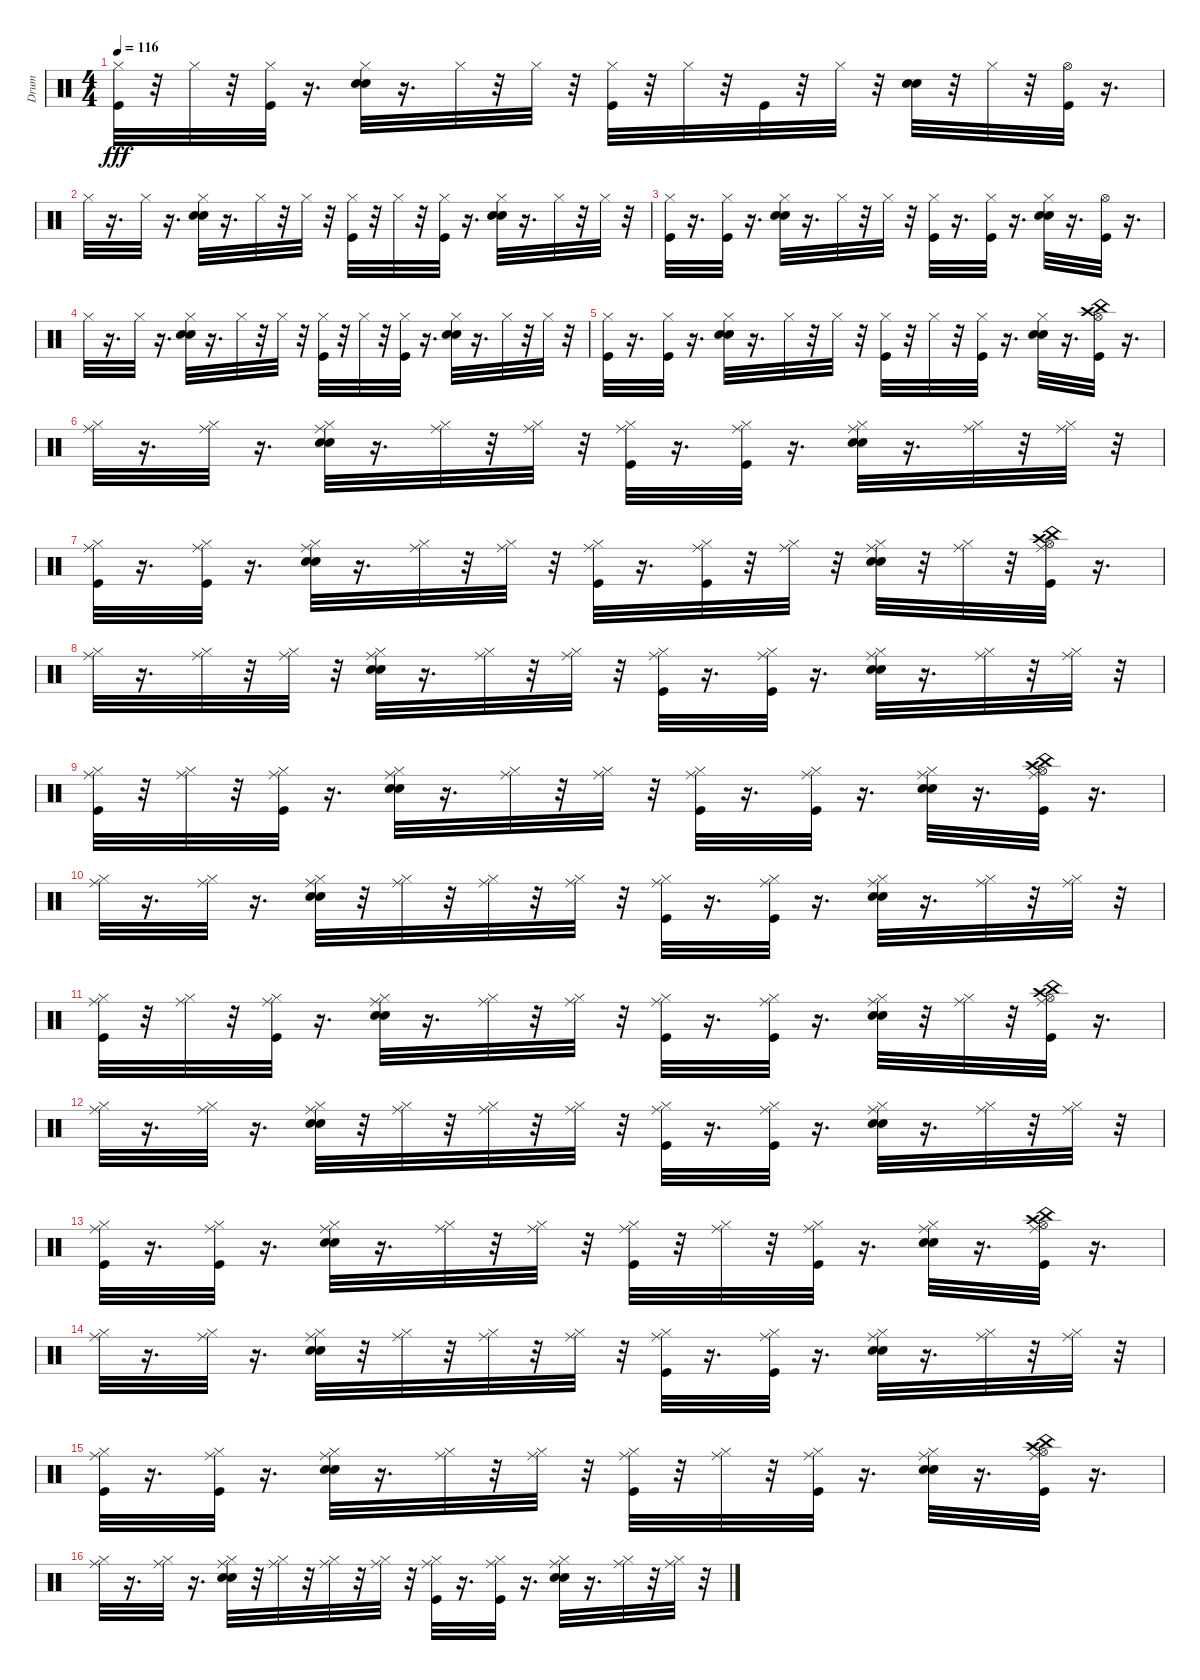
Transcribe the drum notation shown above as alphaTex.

\track ("Drum" "Drum") {instrument percussion}
\staff {score}
\articulation defaults
\ts (4 4)
\tempo 116
\clef neutral
\ks c
("Hi-Hat (closed)" "Kick (hit)").32{dy fff} r.32 "Hi-Hat (closed)".32 r.32 ("Hi-Hat (closed)" "Kick (hit)").32 r.16{d} ("Snare (hit) 2" "Electric Snare (hit)" "Hi-Hat (closed)").32 r.16{d} "Hi-Hat (closed)".32 r.32 "Hi-Hat (closed)".32 r.32 ("Kick (hit)" "Hi-Hat (closed)").32 r.32 "Hi-Hat (closed)".32 r.32 "Kick (hit)".32 r.32 "Hi-Hat (closed)".32 r.32 ("Snare (hit) 2" "Electric Snare (hit)").32 r.32 "Hi-Hat (closed)".32 r.32 ("Hi-Hat (open)" "Kick (hit)").32 r.16{d} |
"Hi-Hat (closed)".32 r.16{d} "Hi-Hat (closed)".32 r.16{d} ("Snare (hit) 2" "Electric Snare (hit)" "Hi-Hat (closed)").32 r.16{d} "Hi-Hat (closed)".32 r.32 "Hi-Hat (closed)".32 r.32 ("Hi-Hat (closed)" "Kick (hit)").32 r.32 "Hi-Hat (closed)".32 r.32 ("Kick (hit)" "Hi-Hat (closed)").32 r.16{d} ("Snare (hit) 2" "Electric Snare (hit)" "Hi-Hat (closed)").32 r.16{d} "Hi-Hat (closed)".32 r.32 "Hi-Hat (closed)".32 r.32 |
("Kick (hit)" "Hi-Hat (closed)").32 r.16{d} ("Kick (hit)" "Hi-Hat (closed)").32 r.16{d} ("Snare (hit) 2" "Electric Snare (hit)" "Hi-Hat (closed)").32 r.16{d} "Hi-Hat (closed)".32 r.32 "Hi-Hat (closed)".32 r.32 ("Kick (hit)" "Hi-Hat (closed)").32 r.16{d} ("Hi-Hat (closed)" "Kick (hit)").32 r.16{d} ("Hi-Hat (closed)" "Snare (hit) 2" "Electric Snare (hit)").32 r.16{d} ("Hi-Hat (open)" "Kick (hit)").32 r.16{d} |
"Hi-Hat (closed)".32 r.16{d} "Hi-Hat (closed)".32 r.16{d} ("Snare (hit) 2" "Electric Snare (hit)" "Hi-Hat (closed)").32 r.16{d} "Hi-Hat (closed)".32 r.32 "Hi-Hat (closed)".32 r.32 ("Hi-Hat (closed)" "Kick (hit)").32 r.32 "Hi-Hat (closed)".32 r.32 ("Hi-Hat (closed)" "Kick (hit)").32 r.16{d} ("Snare (hit) 2" "Electric Snare (hit)" "Hi-Hat (closed)").32 r.16{d} "Hi-Hat (closed)".32 r.32 "Hi-Hat (closed)".32 r.32 |
("Kick (hit)" "Hi-Hat (closed)").32 r.16{d} ("Hi-Hat (closed)" "Kick (hit)").32 r.16{d} ("Snare (hit) 2" "Electric Snare (hit)" "Hi-Hat (closed)").32 r.16{d} "Hi-Hat (closed)".32 r.32 "Hi-Hat (closed)".32 r.32 ("Kick (hit)" "Hi-Hat (closed)").32 r.32 "Hi-Hat (closed)".32 r.32 ("Hi-Hat (closed)" "Kick (hit)").32 r.16{d} ("Snare (hit) 2" "Electric Snare (hit)" "Hi-Hat (closed)").32 r.16{d} ("Hi-Hat (open)" "Crash high (hit)" "China (hit)" "Kick (hit)").32 r.16{d} |
("Ride (middle)" "Hi-Hat (closed)").32 r.16{d} ("Ride (middle)" "Hi-Hat (closed)").32 r.16{d} ("Snare (hit) 2" "Electric Snare (hit)" "Ride (middle)" "Hi-Hat (closed)").32 r.16{d} ("Ride (middle)" "Hi-Hat (closed)").32 r.32 ("Ride (middle)" "Hi-Hat (closed)").32 r.32 ("Ride (middle)" "Hi-Hat (closed)" "Kick (hit)").32 r.16{d} ("Ride (middle)" "Hi-Hat (closed)" "Kick (hit)").32 r.16{d} ("Ride (middle)" "Hi-Hat (closed)" "Snare (hit) 2" "Electric Snare (hit)").32 r.16{d} ("Ride (middle)" "Hi-Hat (closed)").32 r.32 ("Ride (middle)" "Hi-Hat (closed)").32 r.32 |
("Ride (middle)" "Hi-Hat (closed)" "Kick (hit)").32 r.16{d} ("Ride (middle)" "Hi-Hat (closed)" "Kick (hit)").32 r.16{d} ("Snare (hit) 2" "Electric Snare (hit)" "Ride (middle)" "Hi-Hat (closed)").32 r.16{d} ("Ride (middle)" "Hi-Hat (closed)").32 r.32 ("Ride (middle)" "Hi-Hat (closed)").32 r.32 ("Kick (hit)" "Ride (middle)" "Hi-Hat (closed)").32 r.16{d} ("Kick (hit)" "Ride (middle)" "Hi-Hat (closed)").32 r.32 ("Ride (middle)" "Hi-Hat (closed)").32 r.32 ("Snare (hit) 2" "Electric Snare (hit)" "Ride (middle)" "Hi-Hat (closed)").32 r.32 ("Ride (middle)" "Hi-Hat (closed)").32 r.32 ("Crash high (hit)" "China (hit)" "Ride (middle)" "Hi-Hat (open)" "Kick (hit)").32 r.16{d} |
("Ride (middle)" "Hi-Hat (closed)").32 r.16{d} ("Ride (middle)" "Hi-Hat (closed)").32 r.32 ("Ride (middle)" "Hi-Hat (closed)").32 r.32 ("Snare (hit) 2" "Electric Snare (hit)" "Ride (middle)" "Hi-Hat (closed)").32 r.16{d} ("Ride (middle)" "Hi-Hat (closed)").32 r.32 ("Ride (middle)" "Hi-Hat (closed)").32 r.32 ("Ride (middle)" "Hi-Hat (closed)" "Kick (hit)").32 r.16{d} ("Ride (middle)" "Hi-Hat (closed)" "Kick (hit)").32 r.16{d} ("Ride (middle)" "Hi-Hat (closed)" "Snare (hit) 2" "Electric Snare (hit)").32 r.16{d} ("Ride (middle)" "Hi-Hat (closed)").32 r.32 ("Ride (middle)" "Hi-Hat (closed)").32 r.32 |
("Ride (middle)" "Hi-Hat (closed)" "Kick (hit)").32 r.32 ("Ride (middle)" "Hi-Hat (closed)").32 r.32 ("Ride (middle)" "Hi-Hat (closed)" "Kick (hit)").32 r.16{d} ("Snare (hit) 2" "Electric Snare (hit)" "Ride (middle)" "Hi-Hat (closed)").32 r.16{d} ("Ride (middle)" "Hi-Hat (closed)").32 r.32 ("Ride (middle)" "Hi-Hat (closed)").32 r.32 ("Kick (hit)" "Ride (middle)" "Hi-Hat (closed)").32 r.16{d} ("Ride (middle)" "Hi-Hat (closed)" "Kick (hit)").32 r.16{d} ("Snare (hit) 2" "Electric Snare (hit)" "Ride (middle)" "Hi-Hat (closed)").32 r.16{d} ("Crash high (hit)" "China (hit)" "Ride (middle)" "Hi-Hat (open)" "Kick (hit)").32 r.16{d} |
("Ride (middle)" "Hi-Hat (closed)").32 r.16{d} ("Ride (middle)" "Hi-Hat (closed)").32 r.16{d} ("Snare (hit) 2" "Electric Snare (hit)" "Ride (middle)" "Hi-Hat (closed)").32 r.32 ("Ride (middle)" "Hi-Hat (closed)").32 r.32 ("Ride (middle)" "Hi-Hat (closed)").32 r.32 ("Ride (middle)" "Hi-Hat (closed)").32 r.32 ("Ride (middle)" "Hi-Hat (closed)" "Kick (hit)").32 r.16{d} ("Ride (middle)" "Hi-Hat (closed)" "Kick (hit)").32 r.16{d} ("Snare (hit) 2" "Electric Snare (hit)" "Ride (middle)" "Hi-Hat (closed)").32 r.16{d} ("Ride (middle)" "Hi-Hat (closed)").32 r.32 ("Ride (middle)" "Hi-Hat (closed)").32 r.32 |
("Ride (middle)" "Hi-Hat (closed)" "Kick (hit)").32 r.32 ("Ride (middle)" "Hi-Hat (closed)").32 r.32 ("Ride (middle)" "Hi-Hat (closed)" "Kick (hit)").32 r.16{d} ("Snare (hit) 2" "Electric Snare (hit)" "Ride (middle)" "Hi-Hat (closed)").32 r.16{d} ("Ride (middle)" "Hi-Hat (closed)").32 r.32 ("Ride (middle)" "Hi-Hat (closed)").32 r.32 ("Ride (middle)" "Hi-Hat (closed)" "Kick (hit)").32 r.16{d} ("Ride (middle)" "Hi-Hat (closed)" "Kick (hit)").32 r.16{d} ("Snare (hit) 2" "Electric Snare (hit)" "Ride (middle)" "Hi-Hat (closed)").32 r.32 ("Ride (middle)" "Hi-Hat (closed)").32 r.32 ("Crash high (hit)" "China (hit)" "Kick (hit)" "Ride (middle)" "Hi-Hat (open)").32 r.16{d} |
("Ride (middle)" "Hi-Hat (closed)").32 r.16{d} ("Ride (middle)" "Hi-Hat (closed)").32 r.16{d} ("Snare (hit) 2" "Electric Snare (hit)" "Ride (middle)" "Hi-Hat (closed)").32 r.32 ("Ride (middle)" "Hi-Hat (closed)").32 r.32 ("Ride (middle)" "Hi-Hat (closed)").32 r.32 ("Ride (middle)" "Hi-Hat (closed)").32 r.32 ("Ride (middle)" "Hi-Hat (closed)" "Kick (hit)").32 r.16{d} ("Ride (middle)" "Hi-Hat (closed)" "Kick (hit)").32 r.16{d} ("Snare (hit) 2" "Electric Snare (hit)" "Ride (middle)" "Hi-Hat (closed)").32 r.16{d} ("Ride (middle)" "Hi-Hat (closed)").32 r.32 ("Ride (middle)" "Hi-Hat (closed)").32 r.32 |
("Ride (middle)" "Hi-Hat (closed)" "Kick (hit)").32 r.16{d} ("Ride (middle)" "Hi-Hat (closed)" "Kick (hit)").32 r.16{d} ("Ride (middle)" "Hi-Hat (closed)" "Snare (hit) 2" "Electric Snare (hit)").32 r.16{d} ("Ride (middle)" "Hi-Hat (closed)").32 r.32 ("Ride (middle)" "Hi-Hat (closed)").32 r.32 ("Ride (middle)" "Hi-Hat (closed)" "Kick (hit)").32 r.32 ("Ride (middle)" "Hi-Hat (closed)").32 r.32 ("Ride (middle)" "Hi-Hat (closed)" "Kick (hit)").32 r.16{d} ("Snare (hit) 2" "Electric Snare (hit)" "Ride (middle)" "Hi-Hat (closed)").32 r.16{d} ("Ride (middle)" "Hi-Hat (open)" "Crash high (hit)" "China (hit)" "Kick (hit)").32 r.16{d} |
("Ride (middle)" "Hi-Hat (closed)").32 r.16{d} ("Ride (middle)" "Hi-Hat (closed)").32 r.16{d} ("Snare (hit) 2" "Electric Snare (hit)" "Ride (middle)" "Hi-Hat (closed)").32 r.32 ("Ride (middle)" "Hi-Hat (closed)").32 r.32 ("Ride (middle)" "Hi-Hat (closed)").32 r.32 ("Ride (middle)" "Hi-Hat (closed)").32 r.32 ("Ride (middle)" "Hi-Hat (closed)" "Kick (hit)").32 r.16{d} ("Ride (middle)" "Hi-Hat (closed)" "Kick (hit)").32 r.16{d} ("Ride (middle)" "Hi-Hat (closed)" "Snare (hit) 2" "Electric Snare (hit)").32 r.16{d} ("Ride (middle)" "Hi-Hat (closed)").32 r.32 ("Ride (middle)" "Hi-Hat (closed)").32 r.32 |
("Ride (middle)" "Hi-Hat (closed)" "Kick (hit)").32 r.16{d} ("Ride (middle)" "Hi-Hat (closed)" "Kick (hit)").32 r.16{d} ("Ride (middle)" "Hi-Hat (closed)" "Snare (hit) 2" "Electric Snare (hit)").32 r.16{d} ("Ride (middle)" "Hi-Hat (closed)").32 r.32 ("Ride (middle)" "Hi-Hat (closed)").32 r.32 ("Kick (hit)" "Ride (middle)" "Hi-Hat (closed)").32 r.32 ("Ride (middle)" "Hi-Hat (closed)").32 r.32 ("Ride (middle)" "Hi-Hat (closed)" "Kick (hit)").32 r.16{d} ("Snare (hit) 2" "Electric Snare (hit)" "Ride (middle)" "Hi-Hat (closed)").32 r.16{d} ("Crash high (hit)" "China (hit)" "Kick (hit)" "Ride (middle)" "Hi-Hat (open)").32 r.16{d} |
("Ride (middle)" "Hi-Hat (closed)").32 r.16{d} ("Ride (middle)" "Hi-Hat (closed)").32 r.16{d} ("Snare (hit) 2" "Electric Snare (hit)" "Ride (middle)" "Hi-Hat (closed)").32 r.32 ("Ride (middle)" "Hi-Hat (closed)").32 r.32 ("Ride (middle)" "Hi-Hat (closed)").32 r.32 ("Ride (middle)" "Hi-Hat (closed)").32 r.32 ("Ride (middle)" "Hi-Hat (closed)" "Kick (hit)").32 r.16{d} ("Kick (hit)" "Ride (middle)" "Hi-Hat (closed)").32 r.16{d} ("Snare (hit) 2" "Electric Snare (hit)" "Ride (middle)" "Hi-Hat (closed)").32 r.16{d} ("Ride (middle)" "Hi-Hat (closed)").32 r.32 ("Ride (middle)" "Hi-Hat (closed)").32 r.32
